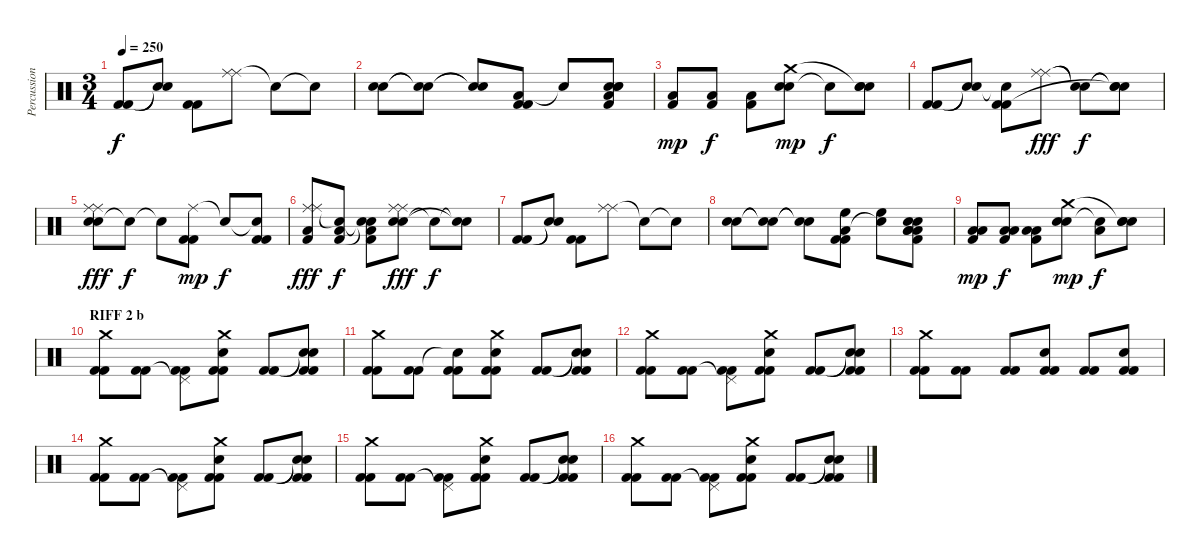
\track ("Percussion" "Percussion") {instrument percussion}
\staff {score}
\articulation defaults
\ts (3 4)
\tempo 250
\clef neutral
\ks c
("Kick (hit) 2" "Kick (hit) 2").8{dy f} ("Snare (hit)"{t} "Snare (hit)"{t}).8 ("Kick (hit) 2" "Kick (hit) 2").8 ("Ride (middle)" "Ride (middle)").8 "Snare (hit)"{t}.8 "Snare (hit)"{t}.8 |
("Snare (hit) 2" "Snare (hit) 2").8 ("Snare (hit)"{t} "Snare (hit)"{t}).8 ("Snare (hit)"{t} "Snare (hit) 2"{t}).8 ("Low Tom (hit)" "Kick (hit) 2" "Kick (hit) 2").8 "Snare (hit)"{t}.8 ("Snare (hit) 2" "Snare (hit) 2" "Low Tom (hit)" "Snare (hit)"{t} "Kick (hit) 2").8 |
("Low Tom (hit)" "Kick (hit) 2").8{dy mp} ("Low Tom (hit)" "Kick (hit) 2").8{dy f} ("Low Tom (hit)" "Kick (hit) 2").8 ("Snare (hit) 2" "Snare (hit) 2" "Crash medium (hit)").8{dy mp} "Snare (hit)"{t}.8{dy f} ("Snare (hit) 2" "Snare (hit) 2" "Snare (hit)"{t}).8 |
("Kick (hit) 2" "Kick (hit) 2").8 ("Snare (hit)"{t} "Snare (hit)"{t}).8 ("Snare (hit)"{t} "Kick (hit) 2" "Kick (hit) 2").8 ("Ride (middle)" "Ride (middle)").8{dy fff} ("Snare (hit)"{t} "Snare (hit)"{t}).8{dy f} ("Snare (hit)"{t} "Snare (hit)"{t} "Snare (hit)"{t}).8 |
("Snare (hit) 2" "Snare (hit) 2" "Ride (middle)" "Ride (middle)").8{dy fff} "Snare (hit)"{t}.8{dy f} "Snare (hit)"{t}.8 ("Ride (middle)" "Kick (hit) 2" "Kick (hit) 2").8{dy mp} "Snare (hit)"{t}.8{dy f} ("Snare (hit)"{t} "Kick (hit) 2" "Kick (hit) 2").8 |
("Low Tom (hit)" "Ride (middle)" "Ride (middle)" "Kick (hit) 2").8{dy fff} ("Low Tom (hit)" "Snare (hit)"{t} "Kick (hit) 2").8{dy f} ("Low Tom (hit)" "Snare (hit)"{t} "Snare (hit)"{t} "Kick (hit) 2").8 ("Snare (hit) 2" "Snare (hit) 2" "Ride (middle)" "Ride (middle)").8{dy fff} "Snare (hit)"{t}.8{dy f} ("Snare (hit)"{t} "Snare (hit)"{t}).8 |
("Kick (hit) 2" "Kick (hit) 2").8 ("Snare (hit)"{t} "Snare (hit)"{t}).8 ("Kick (hit) 2" "Kick (hit) 2").8 ("Ride (middle)" "Ride (middle)").8 "Snare (hit)"{t}.8 "Snare (hit)"{t}.8 |
("Snare (hit) 2" "Snare (hit) 2").8 ("Snare (hit)"{t} "Snare (hit)"{t}).8 ("Snare (hit)"{t} "Snare (hit) 2"{t}).8 ("High Floor Tom (hit)" "Low Tom (hit)" "Kick (hit) 2" "Kick (hit) 2").8 ("High Floor Tom (hit)" "Snare (hit)"{t}).8 ("Snare (hit) 2" "Low Tom (hit)" "Low Tom (hit)" "Low Tom (hit)" "Snare (hit)" "Kick (hit) 2").8 |
("Low Floor Tom (hit)" "Low Tom (hit)" "Kick (hit) 2").8{dy mp} ("Low Floor Tom (hit)" "Low Tom (hit)" "Kick (hit) 2").8{dy f} ("Low Floor Tom (hit)" "Low Tom (hit)" "Kick (hit) 2").8 ("Snare (hit) 2" "Snare (hit) 2" "Crash medium (hit)").8{dy mp} ("Low Tom (hit)" "Snare (hit)"{t}).8{dy f} ("Snare (hit) 2" "Snare (hit) 2" "Snare (hit)"{t}).8 |
\section ("" "RIFF 2 b")
("Crash medium (hit)" "Kick (hit) 2" "Kick (hit) 2").8 ("Kick (hit) 2" "Kick (hit) 2").8 ("Pedal Hi-Hat (hit)"{t} "Kick (hit) 2" "Kick (hit) 2").8 ("Snare (hit) 2" "Crash medium (hit)" "Kick (hit) 2" "Kick (hit) 2").8 ("Kick (hit) 2" "Kick (hit) 2").8 ("Snare (hit)"{t} "Snare (hit)"{t} "Kick (hit) 2" "Kick (hit) 2").8 |
("Crash medium (hit)" "Kick (hit) 2" "Kick (hit) 2").8 ("Kick (hit) 2" "Kick (hit) 2").8 ("Snare (hit)"{t} "Kick (hit) 2" "Kick (hit) 2").8 ("Snare (hit) 2" "Crash medium (hit)" "Kick (hit) 2" "Kick (hit) 2").8 ("Kick (hit) 2" "Kick (hit) 2").8 ("Snare (hit)"{t} "Snare (hit)"{t} "Kick (hit) 2" "Kick (hit) 2").8 |
("Crash medium (hit)" "Kick (hit) 2" "Kick (hit) 2").8 ("Kick (hit) 2" "Kick (hit) 2").8 ("Pedal Hi-Hat (hit)"{t} "Kick (hit) 2" "Kick (hit) 2").8 ("Snare (hit) 2" "Crash medium (hit)" "Kick (hit) 2" "Kick (hit) 2").8 ("Kick (hit) 2" "Kick (hit) 2").8 ("Snare (hit)"{t} "Snare (hit)"{t} "Kick (hit) 2" "Kick (hit) 2").8 |
("Crash medium (hit)" "Kick (hit) 2" "Kick (hit) 2").8 ("Kick (hit) 2" "Kick (hit) 2").8 ("Kick (hit) 2" "Kick (hit) 2").8 ("Snare (hit) 2" "Kick (hit) 2" "Kick (hit) 2").8 ("Kick (hit) 2" "Kick (hit) 2").8 ("Snare (hit) 2" "Kick (hit) 2" "Kick (hit) 2").8 |
("Crash medium (hit)" "Kick (hit) 2" "Kick (hit) 2").8 ("Kick (hit) 2" "Kick (hit) 2").8 ("Pedal Hi-Hat (hit)"{t} "Kick (hit) 2" "Kick (hit) 2").8 ("Snare (hit) 2" "Crash medium (hit)" "Kick (hit) 2" "Kick (hit) 2").8 ("Kick (hit) 2" "Kick (hit) 2").8 ("Snare (hit)"{t} "Snare (hit)"{t} "Kick (hit) 2" "Kick (hit) 2").8 |
("Crash medium (hit)" "Kick (hit) 2" "Kick (hit) 2").8 ("Kick (hit) 2" "Kick (hit) 2").8 ("Pedal Hi-Hat (hit)"{t} "Kick (hit) 2" "Kick (hit) 2").8 ("Snare (hit) 2" "Crash medium (hit)" "Kick (hit) 2" "Kick (hit) 2").8 ("Kick (hit) 2" "Kick (hit) 2").8 ("Snare (hit)"{t} "Snare (hit)"{t} "Kick (hit) 2" "Kick (hit) 2").8 |
("Crash medium (hit)" "Kick (hit) 2" "Kick (hit) 2").8 ("Kick (hit) 2" "Kick (hit) 2").8 ("Pedal Hi-Hat (hit)"{t} "Kick (hit) 2" "Kick (hit) 2").8 ("Snare (hit) 2" "Crash medium (hit)" "Kick (hit) 2" "Kick (hit) 2").8 ("Kick (hit) 2" "Kick (hit) 2").8 ("Snare (hit)"{t} "Snare (hit)"{t} "Kick (hit) 2" "Kick (hit) 2").8
